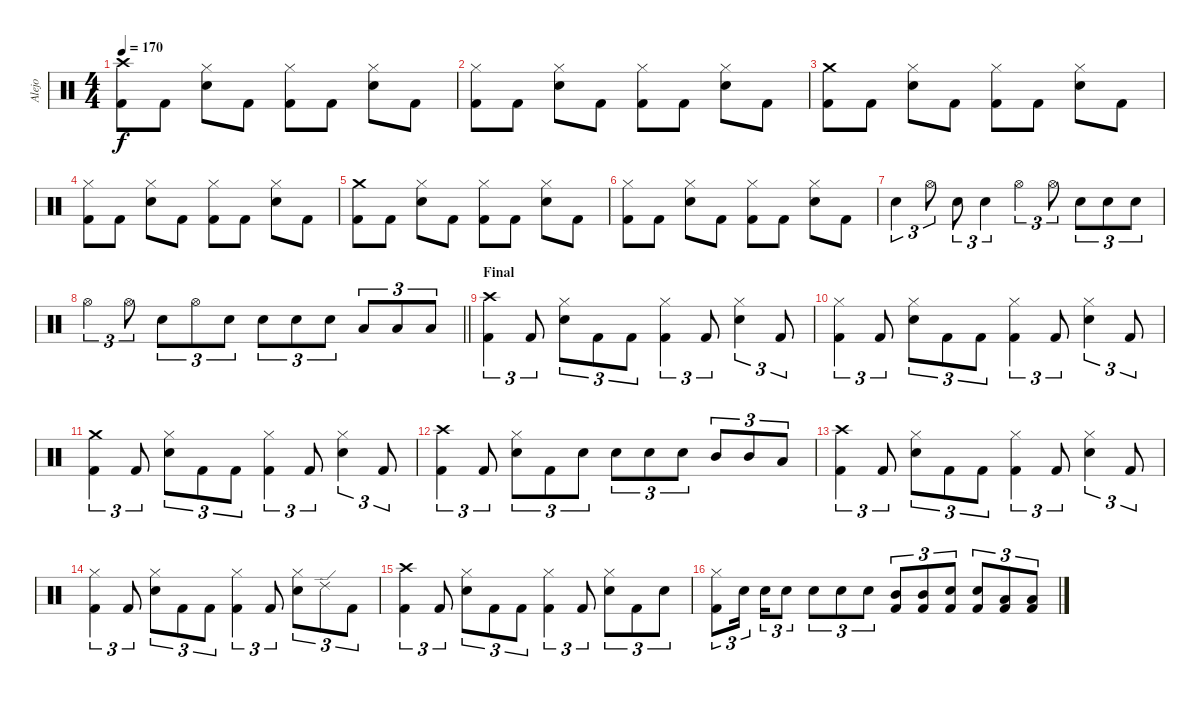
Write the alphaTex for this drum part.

\track ("Alejo" "Alejo") {instrument percussion}
\staff {score}
\articulation defaults
\ts (4 4)
\tempo 170
\clef neutral
\ks c
("Kick (hit) 2" "Crash high (hit)").8{dy f} "Kick (hit) 2".8 ("Snare (hit) 2" "Hi-Hat (closed)").8 "Kick (hit) 2".8 ("Hi-Hat (closed)" "Kick (hit) 2").8 "Kick (hit) 2".8 ("Snare (hit) 2" "Hi-Hat (closed)").8 "Kick (hit) 2".8 |
("Hi-Hat (closed)" "Kick (hit) 2").8 "Kick (hit) 2".8 ("Snare (hit) 2" "Hi-Hat (closed)").8 "Kick (hit) 2".8 ("Hi-Hat (closed)" "Kick (hit) 2").8 "Kick (hit) 2".8 ("Snare (hit) 2" "Hi-Hat (closed)").8 "Kick (hit) 2".8 |
("Crash medium (hit)" "Kick (hit) 2").8 "Kick (hit) 2".8 ("Snare (hit) 2" "Hi-Hat (closed)").8 "Kick (hit) 2".8 ("Hi-Hat (closed)" "Kick (hit) 2").8 "Kick (hit) 2".8 ("Snare (hit) 2" "Hi-Hat (closed)").8 "Kick (hit) 2".8 |
("Hi-Hat (closed)" "Kick (hit) 2").8 "Kick (hit) 2".8 ("Snare (hit) 2" "Hi-Hat (closed)").8 "Kick (hit) 2".8 ("Hi-Hat (closed)" "Kick (hit) 2").8 "Kick (hit) 2".8 ("Snare (hit) 2" "Hi-Hat (closed)").8 "Kick (hit) 2".8 |
("Crash medium (hit)" "Kick (hit) 2").8 "Kick (hit) 2".8 ("Snare (hit) 2" "Hi-Hat (closed)").8 "Kick (hit) 2".8 ("Hi-Hat (closed)" "Kick (hit) 2").8 "Kick (hit) 2".8 ("Snare (hit) 2" "Hi-Hat (closed)").8 "Kick (hit) 2".8 |
("Hi-Hat (closed)" "Kick (hit) 2").8 "Kick (hit) 2".8 ("Snare (hit) 2" "Hi-Hat (closed)").8 "Kick (hit) 2".8 ("Hi-Hat (closed)" "Kick (hit) 2").8 "Kick (hit) 2".8 ("Snare (hit) 2" "Hi-Hat (closed)").8 "Kick (hit) 2".8 |
"Snare (hit) 2".4{tu (3 2)} "Hi-Hat (open)".8{tu (3 2)} "Snare (hit) 2".8{tu (3 2)} "Snare (hit) 2".4{tu (3 2)} "Hi-Hat (open)".4{tu (3 2)} "Hi-Hat (open)".8{tu (3 2)} "Snare (hit) 2".8{tu (3 2)} "Snare (hit) 2".8{tu (3 2)} "Snare (hit) 2".8{tu (3 2)} |
\barLineRight lightlight "Hi-Hat (open)".4{tu (3 2)} "Hi-Hat (open)".8{tu (3 2)} "Snare (hit) 2".8{tu (3 2)} "Hi-Hat (open)".8{tu (3 2)} "Snare (hit) 2".8{tu (3 2)} "Snare (hit) 2".8{tu (3 2)} "Snare (hit) 2".8{tu (3 2)} "Snare (hit) 2".8{tu (3 2)} "Low Tom (hit)".8{tu (3 2)} "Low Tom (hit)".8{tu (3 2)} "Low Tom (hit)".8{tu (3 2)}
|
\section ("" "Final")
("Crash high (hit)" "Kick (hit) 2").4{tu (3 2)} "Kick (hit) 2".8{tu (3 2)} ("Snare (hit) 2" "Hi-Hat (closed)").8{tu (3 2)} "Kick (hit) 2".8{tu (3 2)} "Kick (hit) 2".8{tu (3 2)} ("Kick (hit) 2" "Hi-Hat (closed)").4{tu (3 2)} "Kick (hit) 2".8{tu (3 2)} ("Snare (hit) 2" "Hi-Hat (closed)").4{tu (3 2)} "Kick (hit) 2".8{tu (3 2)} |
("Hi-Hat (closed)" "Kick (hit) 2").4{tu (3 2)} "Kick (hit) 2".8{tu (3 2)} ("Snare (hit) 2" "Hi-Hat (closed)").8{tu (3 2)} "Kick (hit) 2".8{tu (3 2)} "Kick (hit) 2".8{tu (3 2)} ("Kick (hit) 2" "Hi-Hat (closed)").4{tu (3 2)} "Kick (hit) 2".8{tu (3 2)} ("Snare (hit) 2" "Hi-Hat (closed)").4{tu (3 2)} "Kick (hit) 2".8{tu (3 2)} |
("Crash medium (hit)" "Kick (hit) 2").4{tu (3 2)} "Kick (hit) 2".8{tu (3 2)} ("Snare (hit) 2" "Hi-Hat (closed)").8{tu (3 2)} "Kick (hit) 2".8{tu (3 2)} "Kick (hit) 2".8{tu (3 2)} ("Kick (hit) 2" "Hi-Hat (closed)").4{tu (3 2)} "Kick (hit) 2".8{tu (3 2)} ("Snare (hit) 2" "Hi-Hat (closed)").4{tu (3 2)} "Kick (hit) 2".8{tu (3 2)} |
("Crash high (hit)" "Kick (hit) 2").4{tu (3 2)} "Kick (hit) 2".8{tu (3 2)} ("Snare (hit) 2" "Hi-Hat (closed)").8{tu (3 2)} "Kick (hit) 2".8{tu (3 2)} "Snare (hit) 2".8{tu (3 2)} "Snare (hit) 2".8{tu (3 2)} "Snare (hit) 2".8{tu (3 2)} "Snare (hit) 2".8{tu (3 2)} "Mid Tom (hit)".8{tu (3 2)} "Mid Tom (hit)".8{tu (3 2)} "Low Tom (hit)".8{tu (3 2)} |
("Crash high (hit)" "Kick (hit) 2").4{tu (3 2)} "Kick (hit) 2".8{tu (3 2)} ("Snare (hit) 2" "Hi-Hat (closed)").8{tu (3 2)} "Kick (hit) 2".8{tu (3 2)} "Kick (hit) 2".8{tu (3 2)} ("Kick (hit) 2" "Hi-Hat (closed)").4{tu (3 2)} "Kick (hit) 2".8{tu (3 2)} ("Snare (hit) 2" "Hi-Hat (closed)").4{tu (3 2)} "Kick (hit) 2".8{tu (3 2)} |
("Kick (hit) 2" "Hi-Hat (closed)").4{tu (3 2)} "Kick (hit) 2".8{tu (3 2)} ("Snare (hit) 2" "Hi-Hat (closed)").8{tu (3 2)} "Kick (hit) 2".8{tu (3 2)} "Kick (hit) 2".8{tu (3 2)} ("Kick (hit) 2" "Hi-Hat (closed)").4{tu (3 2)} "Kick (hit) 2".8{tu (3 2)} ("Snare (hit) 2" "Hi-Hat (closed)").8{tu (3 2)} "Ride (edge) 2".8{tu (3 2)} "Kick (hit) 2".8{tu (3 2)} |
("Crash high (hit)" "Kick (hit) 2").4{tu (3 2)} "Kick (hit) 2".8{tu (3 2)} ("Snare (hit) 2" "Hi-Hat (closed)").8{tu (3 2)} "Kick (hit) 2".8{tu (3 2)} "Kick (hit) 2".8{tu (3 2)} ("Hi-Hat (closed)" "Kick (hit) 2").4{tu (3 2)} "Kick (hit) 2".8{tu (3 2)} ("Snare (hit) 2" "Hi-Hat (closed)").8{tu (3 2)} "Kick (hit) 2".8{tu (3 2)} "Snare (hit) 2".8{tu (3 2)} |
("Kick (hit) 2" "Hi-Hat (closed)").8{tu (3 2)} "Snare (hit) 2".16{tu (3 2) beam splitsecondary} "Snare (hit) 2".16{tu (3 2)} "Snare (hit) 2".8{tu (3 2)} "Snare (hit) 2".8{tu (3 2)} "Snare (hit) 2".8{tu (3 2)} "Snare (hit) 2".8{tu (3 2)} ("Mid Tom (hit)" "Kick (hit) 2").8{tu (3 2)} ("Mid Tom (hit)" "Kick (hit) 2").8{tu (3 2)} ("Snare (hit) 2" "Kick (hit) 2").8{tu (3 2)} ("Snare (hit) 2" "Kick (hit) 2").8{tu (3 2)} ("Low Tom (hit)" "Kick (hit) 2").8{tu (3 2)} ("Low Tom (hit)" "Kick (hit) 2").8{tu (3 2)}
